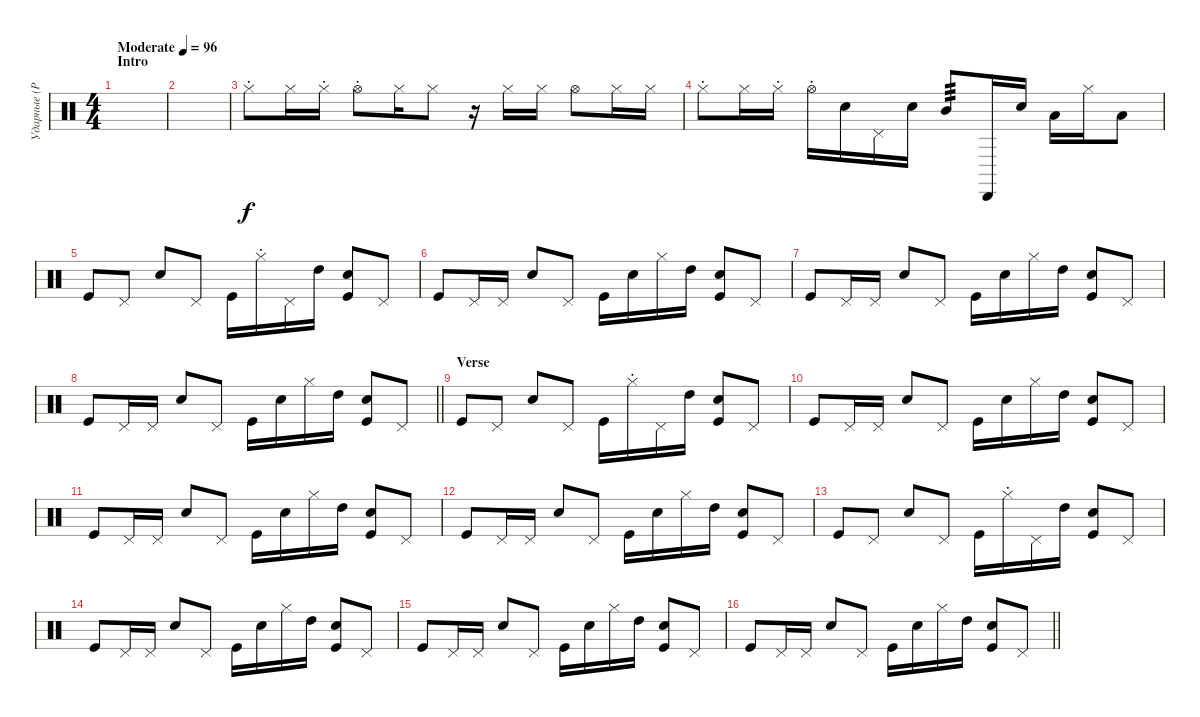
\track ("Ударные (Phil Collins)" "Ударные (P") {instrument percussion}
\staff {score}
\articulation defaults
\ts (4 4)
\section ("" "Intro")
\tempo (96 "Moderate")
\clef neutral
\ks c
|
|
"Hi-Hat (closed)"{st}.8 "Hi-Hat (closed)".16 "Hi-Hat (closed)"{st}.16 "Hi-Hat (open)"{st}.8 "Hi-Hat (closed)".16 "Hi-Hat (closed)".8 r.16 "Hi-Hat (closed)".16 "Hi-Hat (closed)".16 "Hi-Hat (open)".8 "Hi-Hat (closed)".16 "Hi-Hat (closed)".16 |
"Hi-Hat (closed)"{st}.8 "Hi-Hat (closed)".16 "Hi-Hat (closed)"{st}.16 "Hi-Hat (open)"{st}.16 "Electric Snare (hit)".16 "Pedal Hi-Hat (hit)".16 "Electric Snare (hit)".16 "Mid Tom (hit)".8{tp 3} "Cabasa (hit)".16 "Electric Snare (hit)".16 "Low Tom (hit)".16 "Hi-Hat (closed)".16 "Low Tom (hit)".8 |
"Kick (hit)".8 "Pedal Hi-Hat (hit)".8 "Electric Snare (hit)".8 "Pedal Hi-Hat (hit)".8 "Kick (hit)".16 "Hi-Hat (closed)"{st}.16 "Pedal Hi-Hat (hit)".16 "High Tom (hit)".16 ("Electric Snare (hit)" "Kick (hit)").8 "Pedal Hi-Hat (hit)".8 |
"Kick (hit)".8 "Pedal Hi-Hat (hit)".16 "Pedal Hi-Hat (hit)".16 "Electric Snare (hit)".8 "Pedal Hi-Hat (hit)".8 "Kick (hit)".16 "Electric Snare (hit)".16 "Hi-Hat (closed)".16 "High Tom (hit)".16 ("Electric Snare (hit)" "Kick (hit)").8 "Pedal Hi-Hat (hit)".8 |
"Kick (hit)".8 "Pedal Hi-Hat (hit)".16 "Pedal Hi-Hat (hit)".16 "Electric Snare (hit)".8 "Pedal Hi-Hat (hit)".8 "Kick (hit)".16 "Electric Snare (hit)".16 "Hi-Hat (closed)".16 "High Tom (hit)".16 ("Electric Snare (hit)" "Kick (hit)").8 "Pedal Hi-Hat (hit)".8 |
\barLineRight lightlight "Kick (hit)".8 "Pedal Hi-Hat (hit)".16 "Pedal Hi-Hat (hit)".16 "Electric Snare (hit)".8 "Pedal Hi-Hat (hit)".8 "Kick (hit)".16 "Electric Snare (hit)".16 "Hi-Hat (closed)".16 "High Tom (hit)".16
("Electric Snare (hit)" "Kick (hit)").8 "Pedal Hi-Hat (hit)".8 |
\section ("" "Verse")
"Kick (hit)".8 "Pedal Hi-Hat (hit)".8 "Electric Snare (hit)".8 "Pedal Hi-Hat (hit)".8 "Kick (hit)".16 "Hi-Hat (closed)"{st}.16 "Pedal Hi-Hat (hit)".16 "High Tom (hit)".16 ("Electric Snare (hit)" "Kick (hit)").8 "Pedal Hi-Hat (hit)".8 |
"Kick (hit)".8 "Pedal Hi-Hat (hit)".16 "Pedal Hi-Hat (hit)".16 "Electric Snare (hit)".8 "Pedal Hi-Hat (hit)".8 "Kick (hit)".16 "Electric Snare (hit)".16 "Hi-Hat (closed)".16 "High Tom (hit)".16 ("Electric Snare (hit)" "Kick (hit)").8 "Pedal Hi-Hat (hit)".8 |
"Kick (hit)".8 "Pedal Hi-Hat (hit)".16 "Pedal Hi-Hat (hit)".16 "Electric Snare (hit)".8 "Pedal Hi-Hat (hit)".8 "Kick (hit)".16 "Electric Snare (hit)".16 "Hi-Hat (closed)".16 "High Tom (hit)".16 ("Electric Snare (hit)" "Kick (hit)").8 "Pedal Hi-Hat (hit)".8 |
"Kick (hit)".8 "Pedal Hi-Hat (hit)".16 "Pedal Hi-Hat (hit)".16 "Electric Snare (hit)".8 "Pedal Hi-Hat (hit)".8 "Kick (hit)".16 "Electric Snare (hit)".16 "Hi-Hat (closed)".16 "High Tom (hit)".16 ("Electric Snare (hit)" "Kick (hit)").8 "Pedal Hi-Hat (hit)".8 |
"Kick (hit)".8 "Pedal Hi-Hat (hit)".8 "Electric Snare (hit)".8 "Pedal Hi-Hat (hit)".8 "Kick (hit)".16 "Hi-Hat (closed)"{st}.16 "Pedal Hi-Hat (hit)".16 "High Tom (hit)".16 ("Electric Snare (hit)" "Kick (hit)").8 "Pedal Hi-Hat (hit)".8 |
"Kick (hit)".8 "Pedal Hi-Hat (hit)".16 "Pedal Hi-Hat (hit)".16 "Electric Snare (hit)".8 "Pedal Hi-Hat (hit)".8 "Kick (hit)".16 "Electric Snare (hit)".16 "Hi-Hat (closed)".16 "High Tom (hit)".16 ("Electric Snare (hit)" "Kick (hit)").8 "Pedal Hi-Hat (hit)".8 |
"Kick (hit)".8 "Pedal Hi-Hat (hit)".16 "Pedal Hi-Hat (hit)".16 "Electric Snare (hit)".8 "Pedal Hi-Hat (hit)".8 "Kick (hit)".16 "Electric Snare (hit)".16 "Hi-Hat (closed)".16 "High Tom (hit)".16 ("Electric Snare (hit)" "Kick (hit)").8 "Pedal Hi-Hat (hit)".8 |
\barLineRight lightlight "Kick (hit)".8 "Pedal Hi-Hat (hit)".16 "Pedal Hi-Hat (hit)".16 "Electric Snare (hit)".8 "Pedal Hi-Hat (hit)".8 "Kick (hit)".16 "Electric Snare (hit)".16 "Hi-Hat (closed)".16 "High Tom (hit)".16
("Electric Snare (hit)" "Kick (hit)").8 "Pedal Hi-Hat (hit)".8
